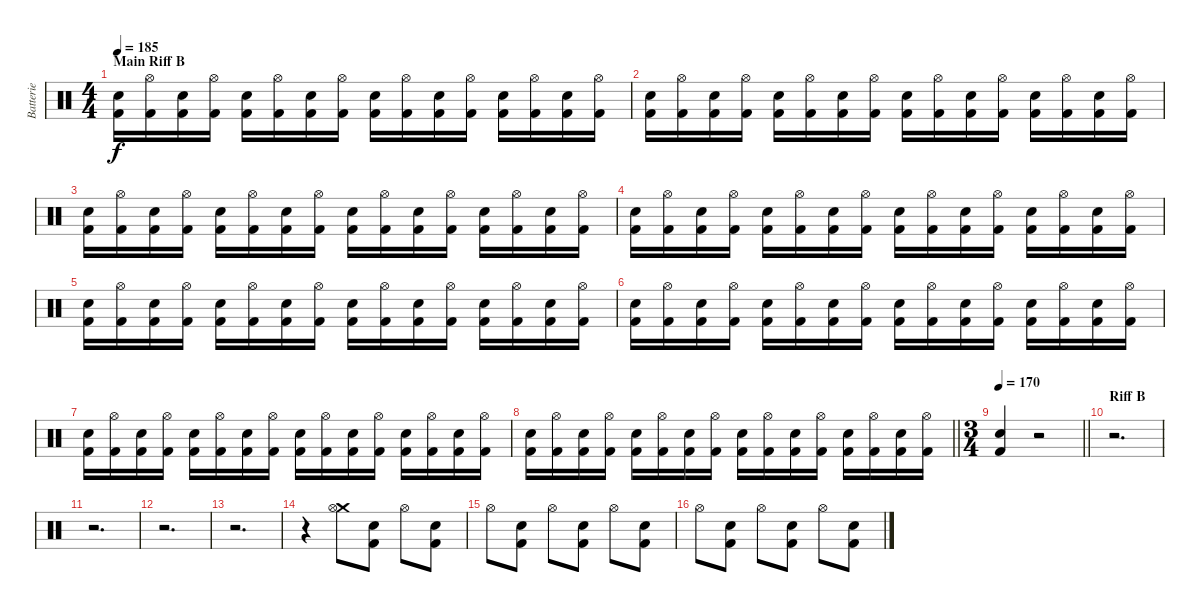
\track ("Batterie" "Batterie") {instrument percussion}
\staff {score}
\articulation defaults
\ts (4 4)
\section ("" "Main Riff B")
\tempo 185
\clef neutral
\ks c
("Electric Snare (hit)" "Kick (hit) 2").16{dy f} ("Hi-Hat (open)" "Kick (hit) 2").16 ("Electric Snare (hit)" "Kick (hit) 2").16 ("Hi-Hat (open)" "Kick (hit) 2").16 ("Electric Snare (hit)" "Kick (hit) 2").16 ("Hi-Hat (open)" "Kick (hit) 2").16 ("Electric Snare (hit)" "Kick (hit) 2").16 ("Hi-Hat (open)" "Kick (hit) 2").16 ("Electric Snare (hit)" "Kick (hit) 2").16 ("Hi-Hat (open)" "Kick (hit) 2").16 ("Electric Snare (hit)" "Kick (hit) 2").16 ("Hi-Hat (open)" "Kick (hit) 2").16 ("Electric Snare (hit)" "Kick (hit) 2").16 ("Hi-Hat (open)" "Kick (hit) 2").16 ("Electric Snare (hit)" "Kick (hit) 2").16 ("Hi-Hat (open)" "Kick (hit) 2").16 |
("Electric Snare (hit)" "Kick (hit) 2").16 ("Hi-Hat (open)" "Kick (hit) 2").16 ("Electric Snare (hit)" "Kick (hit) 2").16 ("Hi-Hat (open)" "Kick (hit) 2").16 ("Electric Snare (hit)" "Kick (hit) 2").16 ("Hi-Hat (open)" "Kick (hit) 2").16 ("Electric Snare (hit)" "Kick (hit) 2").16 ("Hi-Hat (open)" "Kick (hit) 2").16 ("Electric Snare (hit)" "Kick (hit) 2").16 ("Hi-Hat (open)" "Kick (hit) 2").16 ("Electric Snare (hit)" "Kick (hit) 2").16 ("Hi-Hat (open)" "Kick (hit) 2").16 ("Electric Snare (hit)" "Kick (hit) 2").16 ("Hi-Hat (open)" "Kick (hit) 2").16 ("Electric Snare (hit)" "Kick (hit) 2").16 ("Hi-Hat (open)" "Kick (hit) 2").16 |
("Electric Snare (hit)" "Kick (hit) 2").16 ("Hi-Hat (open)" "Kick (hit) 2").16 ("Electric Snare (hit)" "Kick (hit) 2").16 ("Hi-Hat (open)" "Kick (hit) 2").16 ("Electric Snare (hit)" "Kick (hit) 2").16 ("Hi-Hat (open)" "Kick (hit) 2").16 ("Electric Snare (hit)" "Kick (hit) 2").16 ("Hi-Hat (open)" "Kick (hit) 2").16 ("Electric Snare (hit)" "Kick (hit) 2").16 ("Hi-Hat (open)" "Kick (hit) 2").16 ("Electric Snare (hit)" "Kick (hit) 2").16 ("Hi-Hat (open)" "Kick (hit) 2").16 ("Electric Snare (hit)" "Kick (hit) 2").16 ("Hi-Hat (open)" "Kick (hit) 2").16 ("Electric Snare (hit)" "Kick (hit) 2").16 ("Hi-Hat (open)" "Kick (hit) 2").16 |
("Electric Snare (hit)" "Kick (hit) 2").16 ("Hi-Hat (open)" "Kick (hit) 2").16 ("Electric Snare (hit)" "Kick (hit) 2").16 ("Hi-Hat (open)" "Kick (hit) 2").16 ("Electric Snare (hit)" "Kick (hit) 2").16 ("Hi-Hat (open)" "Kick (hit) 2").16 ("Electric Snare (hit)" "Kick (hit) 2").16 ("Hi-Hat (open)" "Kick (hit) 2").16 ("Electric Snare (hit)" "Kick (hit) 2").16 ("Hi-Hat (open)" "Kick (hit) 2").16 ("Electric Snare (hit)" "Kick (hit) 2").16 ("Hi-Hat (open)" "Kick (hit) 2").16 ("Electric Snare (hit)" "Kick (hit) 2").16 ("Hi-Hat (open)" "Kick (hit) 2").16 ("Electric Snare (hit)" "Kick (hit) 2").16 ("Hi-Hat (open)" "Kick (hit) 2").16 |
("Electric Snare (hit)" "Kick (hit) 2").16 ("Hi-Hat (open)" "Kick (hit) 2").16 ("Electric Snare (hit)" "Kick (hit) 2").16 ("Hi-Hat (open)" "Kick (hit) 2").16 ("Electric Snare (hit)" "Kick (hit) 2").16 ("Hi-Hat (open)" "Kick (hit) 2").16 ("Electric Snare (hit)" "Kick (hit) 2").16 ("Hi-Hat (open)" "Kick (hit) 2").16 ("Electric Snare (hit)" "Kick (hit) 2").16 ("Hi-Hat (open)" "Kick (hit) 2").16 ("Electric Snare (hit)" "Kick (hit) 2").16 ("Hi-Hat (open)" "Kick (hit) 2").16 ("Electric Snare (hit)" "Kick (hit) 2").16 ("Hi-Hat (open)" "Kick (hit) 2").16 ("Electric Snare (hit)" "Kick (hit) 2").16 ("Hi-Hat (open)" "Kick (hit) 2").16 |
("Electric Snare (hit)" "Kick (hit) 2").16 ("Hi-Hat (open)" "Kick (hit) 2").16 ("Electric Snare (hit)" "Kick (hit) 2").16 ("Hi-Hat (open)" "Kick (hit) 2").16 ("Electric Snare (hit)" "Kick (hit) 2").16 ("Hi-Hat (open)" "Kick (hit) 2").16 ("Electric Snare (hit)" "Kick (hit) 2").16 ("Hi-Hat (open)" "Kick (hit) 2").16 ("Electric Snare (hit)" "Kick (hit) 2").16 ("Hi-Hat (open)" "Kick (hit) 2").16 ("Electric Snare (hit)" "Kick (hit) 2").16 ("Hi-Hat (open)" "Kick (hit) 2").16 ("Electric Snare (hit)" "Kick (hit) 2").16 ("Hi-Hat (open)" "Kick (hit) 2").16 ("Electric Snare (hit)" "Kick (hit) 2").16 ("Hi-Hat (open)" "Kick (hit) 2").16 |
("Electric Snare (hit)" "Kick (hit) 2").16 ("Hi-Hat (open)" "Kick (hit) 2").16 ("Electric Snare (hit)" "Kick (hit) 2").16 ("Hi-Hat (open)" "Kick (hit) 2").16 ("Electric Snare (hit)" "Kick (hit) 2").16 ("Hi-Hat (open)" "Kick (hit) 2").16 ("Electric Snare (hit)" "Kick (hit) 2").16 ("Hi-Hat (open)" "Kick (hit) 2").16 ("Electric Snare (hit)" "Kick (hit) 2").16 ("Hi-Hat (open)" "Kick (hit) 2").16 ("Electric Snare (hit)" "Kick (hit) 2").16 ("Hi-Hat (open)" "Kick (hit) 2").16 ("Electric Snare (hit)" "Kick (hit) 2").16 ("Hi-Hat (open)" "Kick (hit) 2").16 ("Electric Snare (hit)" "Kick (hit) 2").16 ("Hi-Hat (open)" "Kick (hit) 2").16 |
\barLineRight lightlight
("Electric Snare (hit)" "Kick (hit) 2").16 ("Hi-Hat (open)" "Kick (hit) 2").16 ("Electric Snare (hit)" "Kick (hit) 2").16 ("Hi-Hat (open)" "Kick (hit) 2").16 ("Electric Snare (hit)" "Kick (hit) 2").16 ("Hi-Hat (open)" "Kick (hit) 2").16 ("Electric Snare (hit)" "Kick (hit) 2").16 ("Hi-Hat (open)" "Kick (hit) 2").16 ("Electric Snare (hit)" "Kick (hit) 2").16 ("Hi-Hat (open)" "Kick (hit) 2").16 ("Electric Snare (hit)" "Kick (hit) 2").16 ("Hi-Hat (open)" "Kick (hit) 2").16 ("Electric Snare (hit)" "Kick (hit) 2").16 ("Hi-Hat (open)" "Kick (hit) 2").16 ("Electric Snare (hit)" "Kick (hit) 2").16 ("Hi-Hat (open)" "Kick (hit) 2").16 |
\ts (3 4)
\tempo 170
\barLineRight lightlight
("Electric Snare (hit)" "Kick (hit) 2").4 r.2 |
\section ("" "Riff B")
r.2{d} |
r.2{d} |
r.2{d} |
r.2{d} |
r.4 ("Crash medium (hit)" "Hi-Hat (open)").8 ("Electric Snare (hit)" "Kick (hit) 2").8 "Hi-Hat (open)".8 ("Electric Snare (hit)" "Kick (hit) 2").8 |
"Hi-Hat (open)".8 ("Electric Snare (hit)" "Kick (hit) 2").8 "Hi-Hat (open)".8 ("Electric Snare (hit)" "Kick (hit) 2").8 "Hi-Hat (open)".8 ("Electric Snare (hit)" "Kick (hit) 2").8 |
"Hi-Hat (open)".8 ("Electric Snare (hit)" "Kick (hit) 2").8 "Hi-Hat (open)".8 ("Electric Snare (hit)" "Kick (hit) 2").8 "Hi-Hat (open)".8 ("Electric Snare (hit)" "Kick (hit) 2").8
